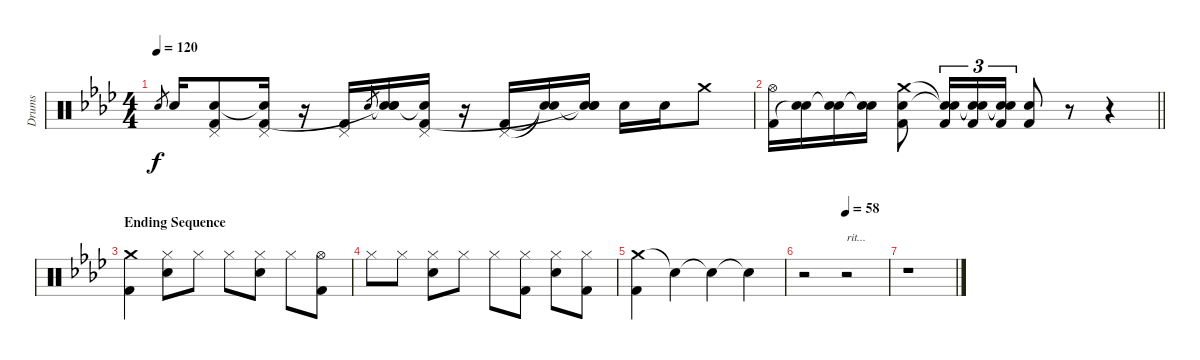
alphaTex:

\track ("Drums" "Drums") {instrument percussion}
\staff {score}
\articulation defaults
\ts (4 4)
\tempo 120
\clef neutral
\ks fminor "Electric Snare (hit)".8{gr dy f} "Electric Snare (hit)".16
("Pedal Hi-Hat (hit)" "Snare (hit)"{t} "Kick (hit) 2").8 ("Pedal Hi-Hat (hit)" "Snare (hit)"{t} "Kick (hit) 2").16 r.16 ("Pedal Hi-Hat (hit)" "Kick (hit) 2").16 "Electric Snare (hit)".8{gr} ("Snare (hit)"{t} "Electric Snare (hit)" "Snare (hit)"{t}).16 ("Pedal Hi-Hat (hit)" "Snare (hit)"{t} "Kick (hit) 2").16 r.16 ("Pedal Hi-Hat (hit)" "Kick (hit) 2").16 ("Snare (hit)"{t} "Snare (hit)"{t}).16 ("Snare (hit)"{t} "Electric Snare (hit)" "Snare (hit)"{t}).16 "Electric Snare (hit)".16 "Electric Snare (hit)".16 "Crash medium (hit)".8 |
\barLineRight lightlight
("Hi-Hat (open)" "Kick (hit) 2").16 ("Electric Snare (hit)" "Snare (hit)"{t}).16 ("Electric Snare (hit)" "Snare (hit)"{t}).16 ("Electric Snare (hit)" "Snare (hit)"{t}).16 ("Crash medium (hit)" "Electric Snare (hit)" "Kick (hit) 2").8 ("Snare (hit)"{t} "Snare (hit)"{t} "Kick (hit) 2").16{tu (3 2)} ("Snare (hit)"{t} "Snare (hit)"{t} "Kick (hit) 2").16{tu (3 2)} ("Snare (hit)"{t} "Snare (hit)"{t} "Kick (hit) 2").16{tu (3 2)} ("Electric Snare (hit)" "Kick (hit) 2").8 r.8 r.4 |
\section ("" "Ending Sequence")
("Crash medium (hit)" "Kick (hit) 2").4 ("Hi-Hat (closed)" "Electric Snare (hit)").8 "Hi-Hat (closed)".8 "Hi-Hat (closed)".8 ("Hi-Hat (closed)" "Electric Snare (hit)").8 "Hi-Hat (closed)".8 ("Hi-Hat (open)" "Kick (hit) 2").8 |
"Hi-Hat (closed)".8 "Hi-Hat (closed)".8 ("Hi-Hat (closed)" "Electric Snare (hit)").8 "Hi-Hat (closed)".8 "Hi-Hat (closed)".8 ("Hi-Hat (closed)" "Kick (hit) 2").8 ("Hi-Hat (closed)" "Electric Snare (hit)").8 ("Hi-Hat (closed)" "Kick (hit) 2").8 |
("Crash medium (hit)" "Kick (hit) 2").4 "Snare (hit)"{t}.4 "Snare (hit)"{t}.4 "Snare (hit)"{t}.4 |
\tempo (58 0.5)
r.2 r.2{txt "rit..."} |
r.1
